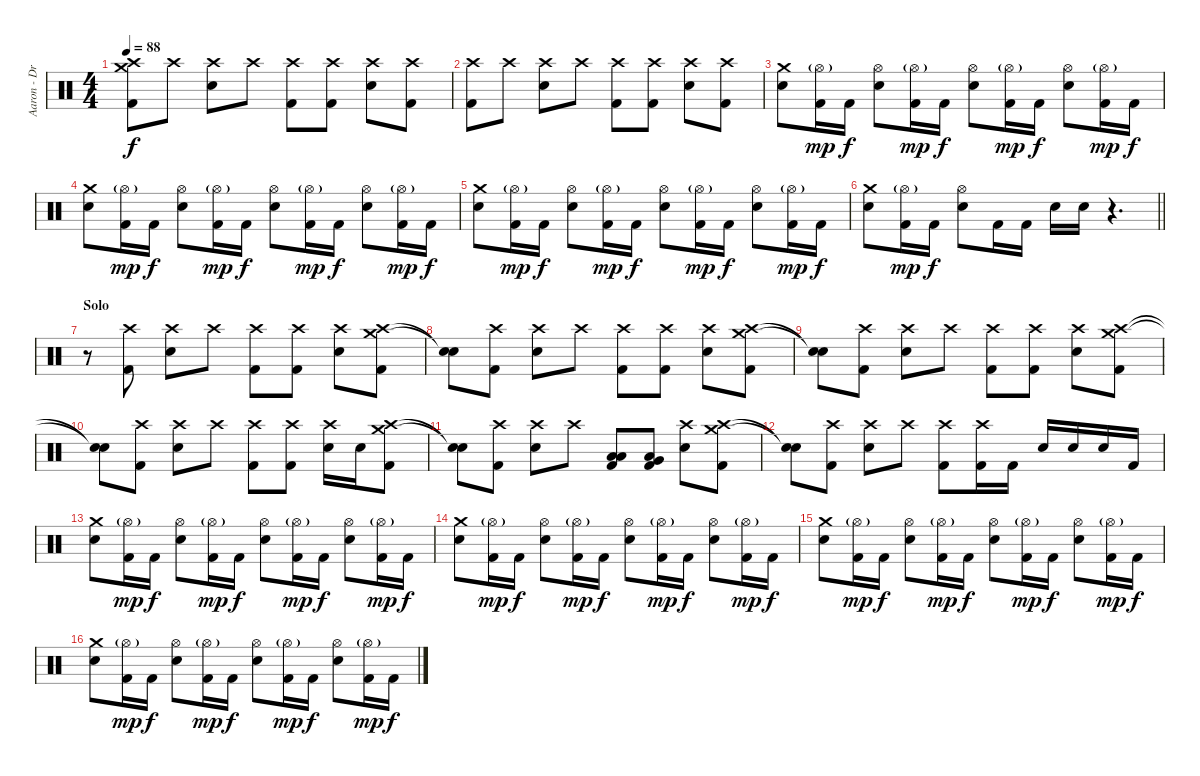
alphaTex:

\track ("Aaron - Drums" "Aaron - Dr") {instrument percussion}
\staff {score}
\articulation defaults
\ts (4 4)
\tempo 88
\clef neutral
\ks c
("Crash high (hit)" "Crash medium (hit)" "Kick (hit) 2").8{dy f} "Crash high (hit)".8 ("Crash high (hit)" "Electric Snare (hit)").8 "Crash high (hit)".8 ("Crash high (hit)" "Kick (hit) 2").8 ("Crash high (hit)" "Kick (hit) 2").8 ("Crash high (hit)" "Electric Snare (hit)").8 ("Crash high (hit)" "Kick (hit) 2").8 |
("Crash high (hit)" "Kick (hit) 2").8 "Crash high (hit)".8 ("Crash high (hit)" "Electric Snare (hit)").8 "Crash high (hit)".8 ("Crash high (hit)" "Kick (hit) 2").8 ("Crash high (hit)" "Kick (hit) 2").8 ("Crash high (hit)" "Electric Snare (hit)").8 ("Crash high (hit)" "Kick (hit) 2").8 |
("Crash medium (hit)" "Electric Snare (hit)").8 ("Hi-Hat (open)"{g} "Kick (hit) 2").16{dy mp} "Kick (hit) 2".16{dy f} ("Hi-Hat (open)" "Electric Snare (hit)").8 ("Hi-Hat (open)"{g} "Kick (hit) 2").16{dy mp} "Kick (hit) 2".16{dy f} ("Hi-Hat (open)" "Electric Snare (hit)").8 ("Hi-Hat (open)"{g} "Kick (hit) 2").16{dy mp} "Kick (hit) 2".16{dy f} ("Hi-Hat (open)" "Electric Snare (hit)").8 ("Hi-Hat (open)"{g} "Kick (hit) 2").16{dy mp} "Kick (hit) 2".16{dy f} |
("Crash medium (hit)" "Electric Snare (hit)").8 ("Hi-Hat (open)"{g} "Kick (hit) 2").16{dy mp} "Kick (hit) 2".16{dy f} ("Hi-Hat (open)" "Electric Snare (hit)").8 ("Hi-Hat (open)"{g} "Kick (hit) 2").16{dy mp} "Kick (hit) 2".16{dy f} ("Hi-Hat (open)" "Electric Snare (hit)").8 ("Hi-Hat (open)"{g} "Kick (hit) 2").16{dy mp} "Kick (hit) 2".16{dy f} ("Hi-Hat (open)" "Electric Snare (hit)").8 ("Hi-Hat (open)"{g} "Kick (hit) 2").16{dy mp} "Kick (hit) 2".16{dy f} |
("Crash medium (hit)" "Electric Snare (hit)").8 ("Hi-Hat (open)"{g} "Kick (hit) 2").16{dy mp} "Kick (hit) 2".16{dy f} ("Hi-Hat (open)" "Electric Snare (hit)").8 ("Hi-Hat (open)"{g} "Kick (hit) 2").16{dy mp} "Kick (hit) 2".16{dy f} ("Hi-Hat (open)" "Electric Snare (hit)").8 ("Hi-Hat (open)"{g} "Kick (hit) 2").16{dy mp} "Kick (hit) 2".16{dy f} ("Hi-Hat (open)" "Electric Snare (hit)").8 ("Hi-Hat (open)"{g} "Kick (hit) 2").16{dy mp} "Kick (hit) 2".16{dy f} |
\barLineRight lightlight
("Crash medium (hit)" "Electric Snare (hit)").8 ("Hi-Hat (open)"{g} "Kick (hit) 2").16{dy mp} "Kick (hit) 2".16{dy f} ("Hi-Hat (open)" "Electric Snare (hit)").8 "Kick (hit) 2".16 "Kick (hit) 2".16 "Electric Snare (hit)".16 "Electric Snare (hit)".16 r.4{d} |
\section ("" "Solo")
r.8 ("Crash high (hit)" "Kick (hit) 2").8 ("Crash high (hit)" "Electric Snare (hit)").8 "Crash high (hit)".8 ("Crash high (hit)" "Kick (hit) 2").8 ("Crash high (hit)" "Kick (hit) 2").8 ("Crash high (hit)" "Electric Snare (hit)").8 ("Crash medium (hit)" "Crash high (hit)" "Kick (hit) 2").8 |
("Snare (hit)"{t} "Snare (hit)"{t}).8 ("Crash high (hit)" "Kick (hit) 2").8 ("Crash high (hit)" "Electric Snare (hit)").8 "Crash high (hit)".8 ("Crash high (hit)" "Kick (hit) 2").8 ("Crash high (hit)" "Kick (hit) 2").8 ("Crash high (hit)" "Electric Snare (hit)").8 ("Crash medium (hit)" "Crash high (hit)" "Kick (hit) 2").8 |
("Snare (hit)"{t} "Snare (hit)"{t}).8 ("Crash high (hit)" "Kick (hit) 2").8 ("Crash high (hit)" "Electric Snare (hit)").8 "Crash high (hit)".8 ("Crash high (hit)" "Kick (hit) 2").8 ("Crash high (hit)" "Kick (hit) 2").8 ("Crash high (hit)" "Electric Snare (hit)").8 ("Crash medium (hit)" "Crash high (hit)" "Kick (hit) 2").8 |
("Snare (hit)"{t} "Snare (hit)"{t}).8 ("Crash high (hit)" "Kick (hit) 2").8 ("Crash high (hit)" "Electric Snare (hit)").8 "Crash high (hit)".8 ("Crash high (hit)" "Kick (hit) 2").8 ("Crash high (hit)" "Kick (hit) 2").8 ("Crash high (hit)" "Electric Snare (hit)").16 "Electric Snare (hit)".16 ("Crash medium (hit)" "Crash high (hit)" "Kick (hit) 2").8 |
("Snare (hit)"{t} "Snare (hit)"{t}).8 ("Crash high (hit)" "Kick (hit) 2").8 ("Crash high (hit)" "Electric Snare (hit)").8 "Crash high (hit)".8 ("Low Tom (hit)" "Low Floor Tom (hit)" "Kick (hit) 2").8 ("Very Low Tom (hit)" "Low Floor Tom (hit)" "Kick (hit) 2").8 ("Crash high (hit)" "Electric Snare (hit)").8 ("Crash medium (hit)" "Crash high (hit)" "Kick (hit) 2").8 |
("Snare (hit)"{t} "Snare (hit)"{t}).8 ("Crash high (hit)" "Kick (hit) 2").8 ("Crash high (hit)" "Electric Snare (hit)").8 "Crash high (hit)".8 ("Crash high (hit)" "Kick (hit) 2").8 ("Crash high (hit)" "Kick (hit) 2").16 "Kick (hit) 2".16 "Electric Snare (hit)".16 "Electric Snare (hit)".16 "Electric Snare (hit)".16 "Kick (hit) 2".16 |
("Crash medium (hit)" "Electric Snare (hit)").8 ("Hi-Hat (open)"{g} "Kick (hit) 2").16{dy mp} "Kick (hit) 2".16{dy f} ("Hi-Hat (open)" "Electric Snare (hit)").8 ("Hi-Hat (open)"{g} "Kick (hit) 2").16{dy mp} "Kick (hit) 2".16{dy f} ("Hi-Hat (open)" "Electric Snare (hit)").8 ("Hi-Hat (open)"{g} "Kick (hit) 2").16{dy mp} "Kick (hit) 2".16{dy f} ("Hi-Hat (open)" "Electric Snare (hit)").8 ("Hi-Hat (open)"{g} "Kick (hit) 2").16{dy mp} "Kick (hit) 2".16{dy f} |
("Crash medium (hit)" "Electric Snare (hit)").8 ("Hi-Hat (open)"{g} "Kick (hit) 2").16{dy mp} "Kick (hit) 2".16{dy f} ("Hi-Hat (open)" "Electric Snare (hit)").8 ("Hi-Hat (open)"{g} "Kick (hit) 2").16{dy mp} "Kick (hit) 2".16{dy f} ("Hi-Hat (open)" "Electric Snare (hit)").8 ("Hi-Hat (open)"{g} "Kick (hit) 2").16{dy mp} "Kick (hit) 2".16{dy f} ("Hi-Hat (open)" "Electric Snare (hit)").8 ("Hi-Hat (open)"{g} "Kick (hit) 2").16{dy mp} "Kick (hit) 2".16{dy f} |
("Crash medium (hit)" "Electric Snare (hit)").8 ("Hi-Hat (open)"{g} "Kick (hit) 2").16{dy mp} "Kick (hit) 2".16{dy f} ("Hi-Hat (open)" "Electric Snare (hit)").8 ("Hi-Hat (open)"{g} "Kick (hit) 2").16{dy mp} "Kick (hit) 2".16{dy f} ("Hi-Hat (open)" "Electric Snare (hit)").8 ("Hi-Hat (open)"{g} "Kick (hit) 2").16{dy mp} "Kick (hit) 2".16{dy f} ("Hi-Hat (open)" "Electric Snare (hit)").8 ("Hi-Hat (open)"{g} "Kick (hit) 2").16{dy mp} "Kick (hit) 2".16{dy f} |
("Crash medium (hit)" "Electric Snare (hit)").8 ("Hi-Hat (open)"{g} "Kick (hit) 2").16{dy mp} "Kick (hit) 2".16{dy f} ("Hi-Hat (open)" "Electric Snare (hit)").8 ("Hi-Hat (open)"{g} "Kick (hit) 2").16{dy mp} "Kick (hit) 2".16{dy f} ("Hi-Hat (open)" "Electric Snare (hit)").8 ("Hi-Hat (open)"{g} "Kick (hit) 2").16{dy mp} "Kick (hit) 2".16{dy f} ("Hi-Hat (open)" "Electric Snare (hit)").8 ("Hi-Hat (open)"{g} "Kick (hit) 2").16{dy mp} "Kick (hit) 2".16{dy f}
